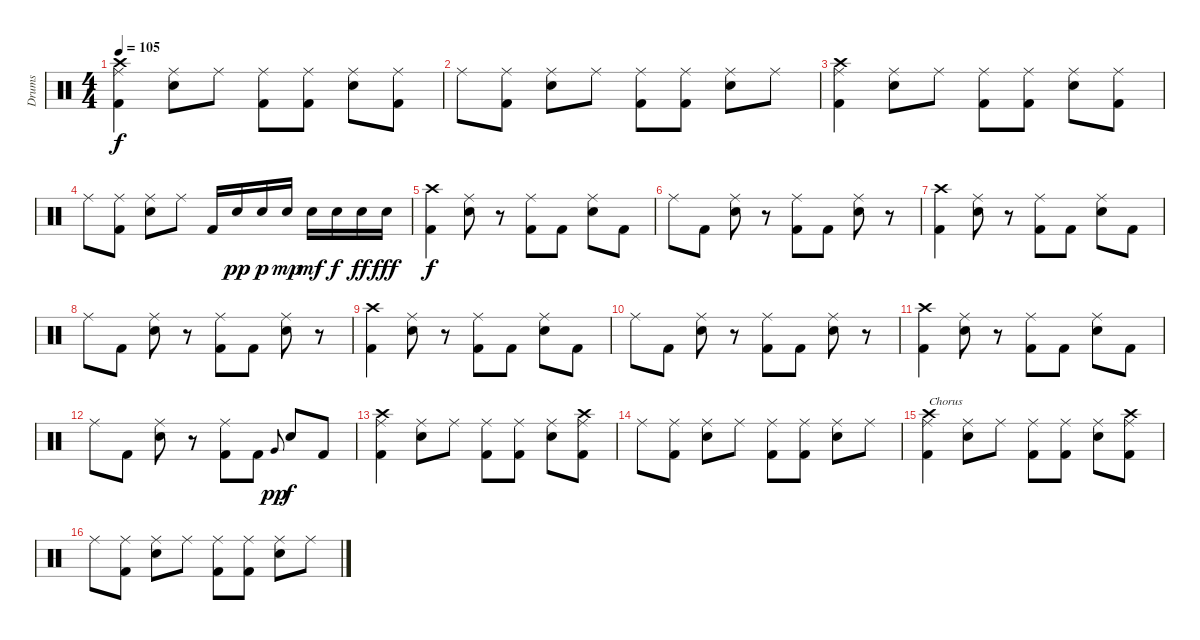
\track ("Drums" "Drums") {instrument percussion}
\staff {score}
\articulation defaults
\ts (4 4)
\tempo 105
\clef neutral
\ks c
("Ride (middle)" "Crash high (hit)" "Kick (hit) 2").4{dy f} ("Ride (middle)" "Electric Snare (hit)").8 "Ride (middle)".8 ("Ride (middle)" "Kick (hit) 2").8 ("Ride (middle)" "Kick (hit) 2").8 ("Ride (middle)" "Electric Snare (hit)").8 ("Ride (middle)" "Kick (hit) 2").8 |
"Ride (middle)".8 ("Ride (middle)" "Kick (hit) 2").8 ("Ride (middle)" "Electric Snare (hit)").8 "Ride (middle)".8 ("Ride (middle)" "Kick (hit) 2").8 ("Ride (middle)" "Kick (hit) 2").8 ("Ride (middle)" "Electric Snare (hit)").8 "Ride (middle)".8 |
("Ride (middle)" "Crash high (hit)" "Kick (hit) 2").4 ("Ride (middle)" "Electric Snare (hit)").8 "Ride (middle)".8 ("Ride (middle)" "Kick (hit) 2").8 ("Ride (middle)" "Kick (hit) 2").8 ("Ride (middle)" "Electric Snare (hit)").8 ("Ride (middle)" "Kick (hit) 2").8 |
"Ride (middle)".8 ("Ride (middle)" "Kick (hit) 2").8 ("Ride (middle)" "Electric Snare (hit)").8 "Ride (middle)".8 "Kick (hit) 2".16 "Electric Snare (hit)".16{dy pp} "Electric Snare (hit)".16{dy p} "Electric Snare (hit)".16{dy mp} "Electric Snare (hit)".16{dy mf} "Electric Snare (hit)".16{dy f} "Electric Snare (hit)".16{dy ff} "Electric Snare (hit)".16{dy fff} |
("Crash high (hit)" "Kick (hit) 2").4{dy f} ("Ride (middle)" "Electric Snare (hit)").8 r.8 ("Ride (middle)" "Kick (hit) 2").8 "Kick (hit) 2".8 ("Ride (middle)" "Electric Snare (hit)").8 "Kick (hit) 2".8 |
"Ride (middle)".8 "Kick (hit) 2".8 ("Ride (middle)" "Electric Snare (hit)").8 r.8 ("Ride (middle)" "Kick (hit) 2").8 "Kick (hit) 2".8 ("Ride (middle)" "Electric Snare (hit)").8 r.8 |
("Crash high (hit)" "Kick (hit) 2").4 ("Ride (middle)" "Electric Snare (hit)").8 r.8 ("Ride (middle)" "Kick (hit) 2").8 "Kick (hit) 2".8 ("Ride (middle)" "Electric Snare (hit)").8 "Kick (hit) 2".8 |
"Ride (middle)".8 "Kick (hit) 2".8 ("Ride (middle)" "Electric Snare (hit)").8 r.8 ("Ride (middle)" "Kick (hit) 2").8 "Kick (hit) 2".8 ("Ride (middle)" "Electric Snare (hit)").8 r.8 |
("Crash high (hit)" "Kick (hit) 2").4 ("Ride (middle)" "Electric Snare (hit)").8 r.8 ("Ride (middle)" "Kick (hit) 2").8 "Kick (hit) 2".8 ("Ride (middle)" "Electric Snare (hit)").8 "Kick (hit) 2".8 |
"Ride (middle)".8 "Kick (hit) 2".8 ("Ride (middle)" "Electric Snare (hit)").8 r.8 ("Ride (middle)" "Kick (hit) 2").8 "Kick (hit) 2".8 ("Ride (middle)" "Electric Snare (hit)").8 r.8 |
("Crash high (hit)" "Kick (hit) 2").4 ("Ride (middle)" "Electric Snare (hit)").8 r.8 ("Ride (middle)" "Kick (hit) 2").8 "Kick (hit) 2".8 ("Ride (middle)" "Electric Snare (hit)").8 "Kick (hit) 2".8 |
"Ride (middle)".8 "Kick (hit) 2".8 ("Ride (middle)" "Electric Snare (hit)").8 r.8 ("Ride (middle)" "Kick (hit) 2").8 "Kick (hit) 2".8 "Very Low Tom (hit)".8{gr onbeat dy pp} "Electric Snare (hit)".8{dy f} "Kick (hit) 2".8 |
("Ride (middle)" "Crash high (hit)" "Kick (hit) 2").4 ("Ride (middle)" "Electric Snare (hit)").8 "Ride (middle)".8 ("Ride (middle)" "Kick (hit) 2").8 ("Ride (middle)" "Kick (hit) 2").8 ("Ride (middle)" "Electric Snare (hit)").8 ("Ride (middle)" "Crash high (hit)" "Kick (hit) 2").8 |
"Ride (middle)".8 ("Ride (middle)" "Kick (hit) 2").8 ("Ride (middle)" "Electric Snare (hit)").8 "Ride (middle)".8 ("Ride (middle)" "Kick (hit) 2").8 ("Ride (middle)" "Kick (hit) 2").8 ("Ride (middle)" "Electric Snare (hit)").8 "Ride (middle)".8 |
("Ride (middle)" "Crash high (hit)" "Kick (hit) 2").4{txt "Chorus"} ("Ride (middle)" "Electric Snare (hit)").8 "Ride (middle)".8 ("Ride (middle)" "Kick (hit) 2").8 ("Ride (middle)" "Kick (hit) 2").8 ("Ride (middle)" "Electric Snare (hit)").8 ("Ride (middle)" "Crash high (hit)" "Kick (hit) 2").8 |
"Ride (middle)".8 ("Ride (middle)" "Kick (hit) 2").8 ("Ride (middle)" "Electric Snare (hit)").8 "Ride (middle)".8 ("Ride (middle)" "Kick (hit) 2").8 ("Ride (middle)" "Kick (hit) 2").8 ("Ride (middle)" "Electric Snare (hit)").8 "Ride (middle)".8
